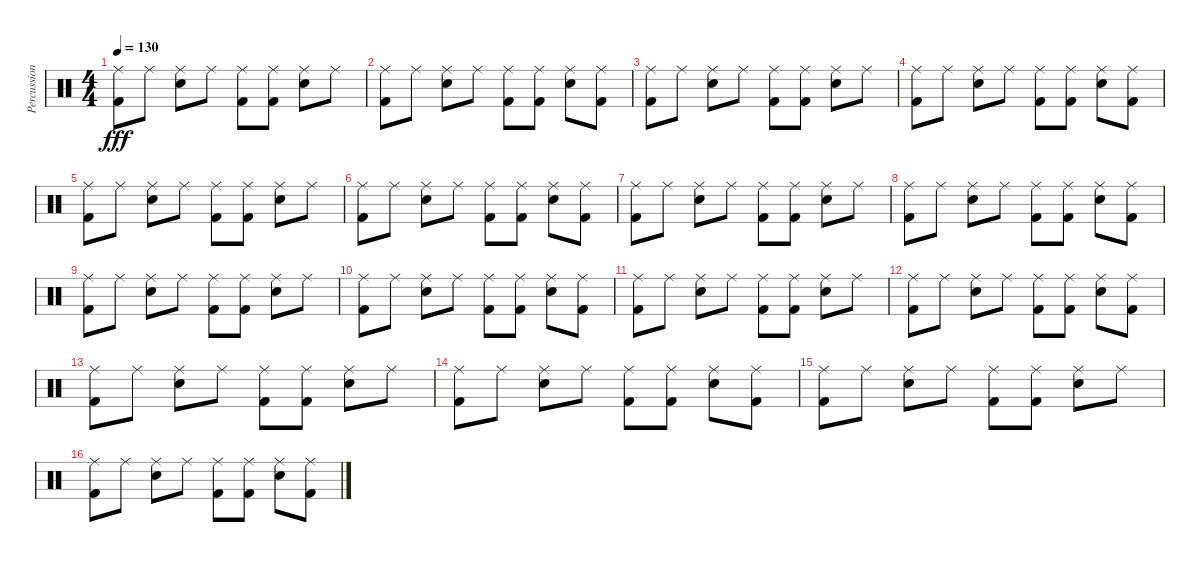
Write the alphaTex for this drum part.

\track ("Percussion" "Percussion") {solo instrument percussion}
\staff {score}
\articulation defaults
\ts (4 4)
\tempo 130
\clef neutral
\ks c
("Ride (middle)" "Kick (hit) 2").8{dy fff} "Ride (middle)".8 ("Ride (middle)" "Snare (hit) 2").8 "Ride (middle)".8 ("Ride (middle)" "Kick (hit) 2").8 ("Ride (middle)" "Kick (hit) 2").8 ("Ride (middle)" "Snare (hit) 2").8 "Ride (middle)".8 |
("Ride (middle)" "Kick (hit) 2").8 "Ride (middle)".8 ("Ride (middle)" "Snare (hit) 2").8 "Ride (middle)".8 ("Ride (middle)" "Kick (hit) 2").8 ("Ride (middle)" "Kick (hit) 2").8 ("Ride (middle)" "Snare (hit) 2").8 ("Ride (middle)" "Kick (hit) 2").8 |
("Ride (middle)" "Kick (hit) 2").8 "Ride (middle)".8 ("Ride (middle)" "Snare (hit) 2").8 "Ride (middle)".8 ("Ride (middle)" "Kick (hit) 2").8 ("Ride (middle)" "Kick (hit) 2").8 ("Ride (middle)" "Snare (hit) 2").8 "Ride (middle)".8 |
("Ride (middle)" "Kick (hit) 2").8 "Ride (middle)".8 ("Ride (middle)" "Snare (hit) 2").8 "Ride (middle)".8 ("Ride (middle)" "Kick (hit) 2").8 ("Ride (middle)" "Kick (hit) 2").8 ("Ride (middle)" "Snare (hit) 2").8 ("Ride (middle)" "Kick (hit) 2").8 |
("Ride (middle)" "Kick (hit) 2").8 "Ride (middle)".8 ("Ride (middle)" "Snare (hit) 2").8 "Ride (middle)".8 ("Ride (middle)" "Kick (hit) 2").8 ("Ride (middle)" "Kick (hit) 2").8 ("Ride (middle)" "Snare (hit) 2").8 "Ride (middle)".8 |
("Ride (middle)" "Kick (hit) 2").8 "Ride (middle)".8 ("Ride (middle)" "Snare (hit) 2").8 "Ride (middle)".8 ("Ride (middle)" "Kick (hit) 2").8 ("Ride (middle)" "Kick (hit) 2").8 ("Ride (middle)" "Snare (hit) 2").8 ("Ride (middle)" "Kick (hit) 2").8 |
("Ride (middle)" "Kick (hit) 2").8 "Ride (middle)".8 ("Ride (middle)" "Snare (hit) 2").8 "Ride (middle)".8 ("Ride (middle)" "Kick (hit) 2").8 ("Ride (middle)" "Kick (hit) 2").8 ("Ride (middle)" "Snare (hit) 2").8 "Ride (middle)".8 |
("Ride (middle)" "Kick (hit) 2").8 "Ride (middle)".8 ("Ride (middle)" "Snare (hit) 2").8 "Ride (middle)".8 ("Ride (middle)" "Kick (hit) 2").8 ("Ride (middle)" "Kick (hit) 2").8 ("Ride (middle)" "Snare (hit) 2").8 ("Ride (middle)" "Kick (hit) 2").8 |
("Ride (middle)" "Kick (hit) 2").8 "Ride (middle)".8 ("Ride (middle)" "Snare (hit) 2").8 "Ride (middle)".8 ("Ride (middle)" "Kick (hit) 2").8 ("Ride (middle)" "Kick (hit) 2").8 ("Ride (middle)" "Snare (hit) 2").8 "Ride (middle)".8 |
("Ride (middle)" "Kick (hit) 2").8 "Ride (middle)".8 ("Ride (middle)" "Snare (hit) 2").8 "Ride (middle)".8 ("Ride (middle)" "Kick (hit) 2").8 ("Ride (middle)" "Kick (hit) 2").8 ("Ride (middle)" "Snare (hit) 2").8 ("Ride (middle)" "Kick (hit) 2").8 |
("Ride (middle)" "Kick (hit) 2").8 "Ride (middle)".8 ("Ride (middle)" "Snare (hit) 2").8 "Ride (middle)".8 ("Ride (middle)" "Kick (hit) 2").8 ("Ride (middle)" "Kick (hit) 2").8 ("Ride (middle)" "Snare (hit) 2").8 "Ride (middle)".8 |
("Ride (middle)" "Kick (hit) 2").8 "Ride (middle)".8 ("Ride (middle)" "Snare (hit) 2").8 "Ride (middle)".8 ("Ride (middle)" "Kick (hit) 2").8 ("Ride (middle)" "Kick (hit) 2").8 ("Ride (middle)" "Snare (hit) 2").8 ("Ride (middle)" "Kick (hit) 2").8 |
("Ride (middle)" "Kick (hit) 2").8 "Ride (middle)".8 ("Ride (middle)" "Snare (hit) 2").8 "Ride (middle)".8 ("Ride (middle)" "Kick (hit) 2").8 ("Ride (middle)" "Kick (hit) 2").8 ("Ride (middle)" "Snare (hit) 2").8 "Ride (middle)".8 |
("Ride (middle)" "Kick (hit) 2").8 "Ride (middle)".8 ("Ride (middle)" "Snare (hit) 2").8 "Ride (middle)".8 ("Ride (middle)" "Kick (hit) 2").8 ("Ride (middle)" "Kick (hit) 2").8 ("Ride (middle)" "Snare (hit) 2").8 ("Ride (middle)" "Kick (hit) 2").8 |
("Ride (middle)" "Kick (hit) 2").8 "Ride (middle)".8 ("Ride (middle)" "Snare (hit) 2").8 "Ride (middle)".8 ("Ride (middle)" "Kick (hit) 2").8 ("Ride (middle)" "Kick (hit) 2").8 ("Ride (middle)" "Snare (hit) 2").8 "Ride (middle)".8 |
("Ride (middle)" "Kick (hit) 2").8 "Ride (middle)".8 ("Ride (middle)" "Snare (hit) 2").8 "Ride (middle)".8 ("Ride (middle)" "Kick (hit) 2").8 ("Ride (middle)" "Kick (hit) 2").8 ("Ride (middle)" "Snare (hit) 2").8 ("Ride (middle)" "Kick (hit) 2").8
